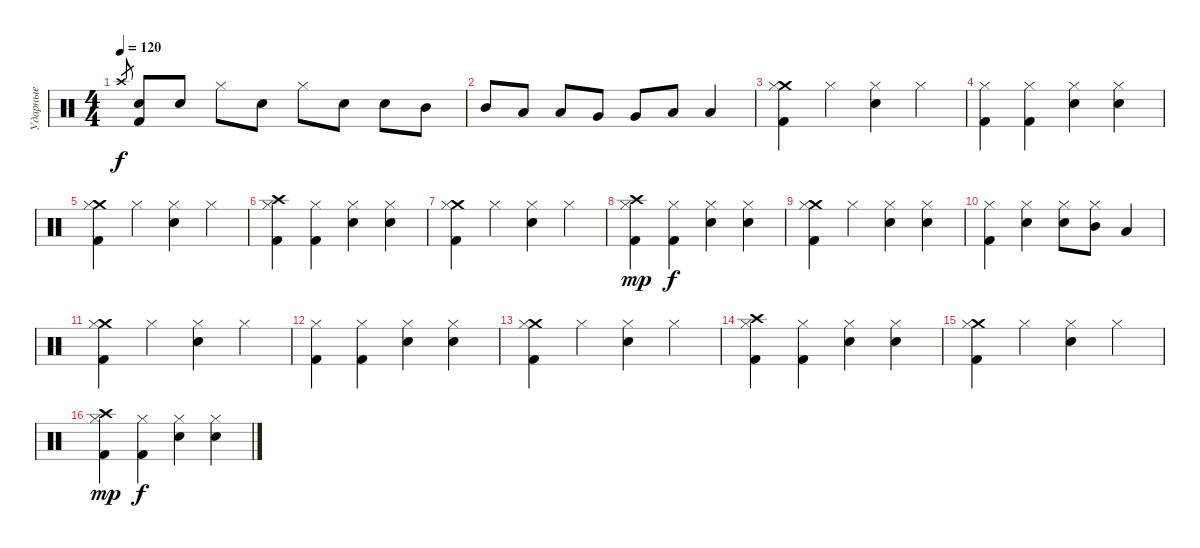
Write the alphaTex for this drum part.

\track ("Ударные" "Ударные") {instrument percussion}
\staff {score}
\articulation defaults
\ts (4 4)
\tempo 120
\clef neutral
\ks c "Crash high (hit)".8{gr dy f}
("Snare (hit) 2" "Kick (hit) 2").8 "Snare (hit) 2".8 "Hi-Hat (closed)".8 "Snare (hit) 2".8 "Hi-Hat (closed)".8 "Snare (hit) 2".8 "Snare (hit) 2".8 "Mid Tom (hit)".8 |
"Mid Tom (hit)".8 "Low Tom (hit)".8 "Low Tom (hit)".8 "Very Low Tom (hit)".8 "Very Low Tom (hit)".8 "Low Floor Tom (hit)".8 "Low Floor Tom (hit)".4 |
("Crash medium (hit)" "Hi-Hat (closed)" "Kick (hit) 2").4 "Hi-Hat (closed)".4 ("Snare (hit) 2" "Hi-Hat (closed)").4 "Hi-Hat (closed)".4 |
("Hi-Hat (closed)" "Kick (hit) 2").4 ("Hi-Hat (closed)" "Kick (hit) 2").4 ("Snare (hit) 2" "Hi-Hat (closed)").4 ("Snare (hit) 2" "Hi-Hat (closed)").4 |
("Crash medium (hit)" "Hi-Hat (closed)" "Kick (hit) 2").4 "Hi-Hat (closed)".4 ("Snare (hit) 2" "Hi-Hat (closed)").4 "Hi-Hat (closed)".4 |
("Crash high (hit)" "Hi-Hat (closed)" "Kick (hit) 2").4 ("Hi-Hat (closed)" "Kick (hit) 2").4 ("Snare (hit) 2" "Hi-Hat (closed)").4 ("Snare (hit) 2" "Hi-Hat (closed)").4 |
("Crash medium (hit)" "Hi-Hat (closed)" "Kick (hit) 2").4 "Hi-Hat (closed)".4 ("Snare (hit) 2" "Hi-Hat (closed)").4 "Hi-Hat (closed)".4 |
("Crash high (hit)" "Hi-Hat (closed)" "Kick (hit) 2").4{dy mp} ("Hi-Hat (closed)" "Kick (hit) 2").4{dy f} ("Snare (hit) 2" "Hi-Hat (closed)").4 ("Snare (hit) 2" "Hi-Hat (closed)").4 |
("Crash medium (hit)" "Hi-Hat (closed)" "Kick (hit) 2").4 "Hi-Hat (closed)".4 ("Snare (hit) 2" "Hi-Hat (closed)").4 ("Snare (hit) 2" "Hi-Hat (closed)").4 |
("Hi-Hat (closed)" "Kick (hit) 2").4 ("Snare (hit) 2" "Hi-Hat (closed)").4 ("Snare (hit) 2" "Hi-Hat (closed)").8 ("Mid Tom (hit)" "Hi-Hat (closed)").8 "Low Tom (hit)".4 |
("Crash medium (hit)" "Hi-Hat (closed)" "Kick (hit) 2").4 "Hi-Hat (closed)".4 ("Snare (hit) 2" "Hi-Hat (closed)").4 "Hi-Hat (closed)".4 |
("Hi-Hat (closed)" "Kick (hit) 2").4 ("Hi-Hat (closed)" "Kick (hit) 2").4 ("Snare (hit) 2" "Hi-Hat (closed)").4 ("Snare (hit) 2" "Hi-Hat (closed)").4 |
("Crash medium (hit)" "Hi-Hat (closed)" "Kick (hit) 2").4 "Hi-Hat (closed)".4 ("Snare (hit) 2" "Hi-Hat (closed)").4 "Hi-Hat (closed)".4 |
("Crash high (hit)" "Hi-Hat (closed)" "Kick (hit) 2").4 ("Hi-Hat (closed)" "Kick (hit) 2").4 ("Snare (hit) 2" "Hi-Hat (closed)").4 ("Snare (hit) 2" "Hi-Hat (closed)").4 |
("Crash medium (hit)" "Hi-Hat (closed)" "Kick (hit) 2").4 "Hi-Hat (closed)".4 ("Snare (hit) 2" "Hi-Hat (closed)").4 "Hi-Hat (closed)".4 |
("Crash high (hit)" "Hi-Hat (closed)" "Kick (hit) 2").4{dy mp} ("Hi-Hat (closed)" "Kick (hit) 2").4{dy f} ("Snare (hit) 2" "Hi-Hat (closed)").4 ("Snare (hit) 2" "Hi-Hat (closed)").4
